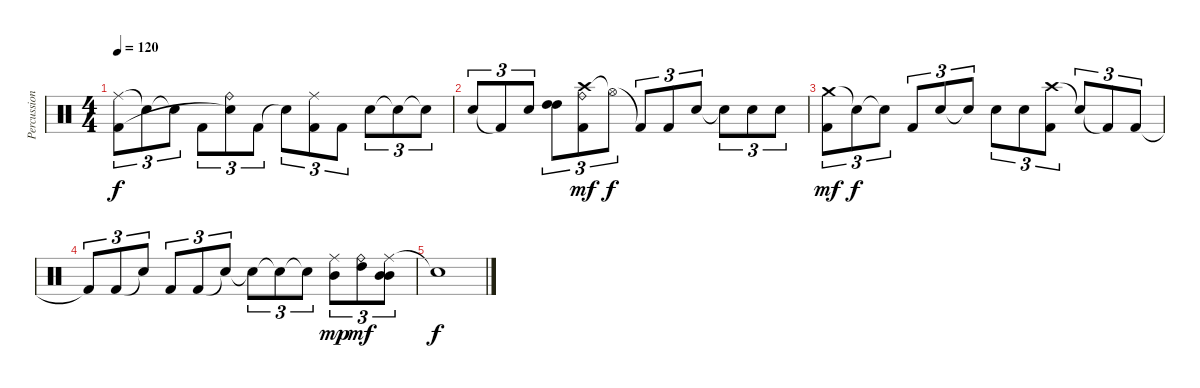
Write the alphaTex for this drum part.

\track ("Percussioni" "Percussion") {instrument percussion}
\staff {score}
\articulation defaults
\ts (4 4)
\tempo 120
\clef neutral
\ks c
("Ride (middle)" "Kick (hit) 2").8{tu (3 2) dy f} "Snare (hit)"{t}.8{tu (3 2)} "Snare (hit)"{t}.8{tu (3 2)} "Kick (hit) 2".8{tu (3 2)} ("Ride (bell)" "Snare (hit)"{t}).8{tu (3 2)} "Kick (hit) 2".8{tu (3 2)} "Snare (hit)"{t}.8{tu (3 2)} ("Ride (middle)" "Kick (hit) 2").8{tu (3 2)} "Kick (hit) 2".8{tu (3 2)} "Metronome (bell)".8{tu (3 2)} "Snare (hit)"{t}.8{tu (3 2)} "Snare (hit)"{t}.8{tu (3 2)} |
"Metronome (bell)".8{tu (3 2)} "Kick (hit) 2"{t}.8{tu (3 2)} "Metronome (bell)".8{tu (3 2)} ("High Tom (hit)" "High Tom (hit)").8{tu (3 2)} ("Crash high (hit)" "Ride (bell)" "Kick (hit) 2").8{tu (3 2) dy mf} "Hi-Hat (open)"{t}.8{tu (3 2) dy f} "Kick (hit) 2"{t}.8{tu (3 2)} "Kick (hit) 2".8{tu (3 2)} "Metronome (bell)".8{tu (3 2)} "Metronome (bell)"{t}.8{tu (3 2)} "Metronome (bell)".8{tu (3 2)} "Metronome (bell)".8{tu (3 2)} |
("Crash medium (hit)" "Kick (hit) 2").8{tu (3 2) dy mf} "Snare (hit)"{t}.8{tu (3 2) dy f} "Snare (hit)"{t}.8{tu (3 2)} "Kick (hit) 2".8{tu (3 2)} "Metronome (bell)".8{tu (3 2)} "Snare (hit)"{t}.8{tu (3 2)} "Metronome (bell)".8{tu (3 2)} "Metronome (bell)".8{tu (3 2)} ("Crash high (hit)" "Kick (hit) 2").8{tu (3 2)} "Snare (hit)"{t}.8{tu (3 2)} "Kick (hit) 2"{t}.8{tu (3 2)} "Kick (hit) 2".8{tu (3 2)} |
"Kick (hit) 2"{t}.8{tu (3 2)} "Kick (hit) 2".8{tu (3 2)} "Snare (hit)"{t}.8{tu (3 2)} "Kick (hit) 2".8{tu (3 2)} "Kick (hit) 2".8{tu (3 2)} "Snare (hit)"{t}.8{tu (3 2)} "Snare (hit)"{t}.8{tu (3 2)} "Snare (hit)"{t}.8{tu (3 2)} "Snare (hit)"{t}.8{tu (3 2)} ("Mid Tom (hit)" "Ride (middle)").8{tu (3 2) dy mp} ("High Tom (hit)" "Ride (bell)").8{tu (3 2) dy mf} ("Ride (middle)" "Mid Tom (hit)" "Mid Tom (hit)").8{tu (3 2)} |
"Snare (hit)"{t}.1{dy f}
